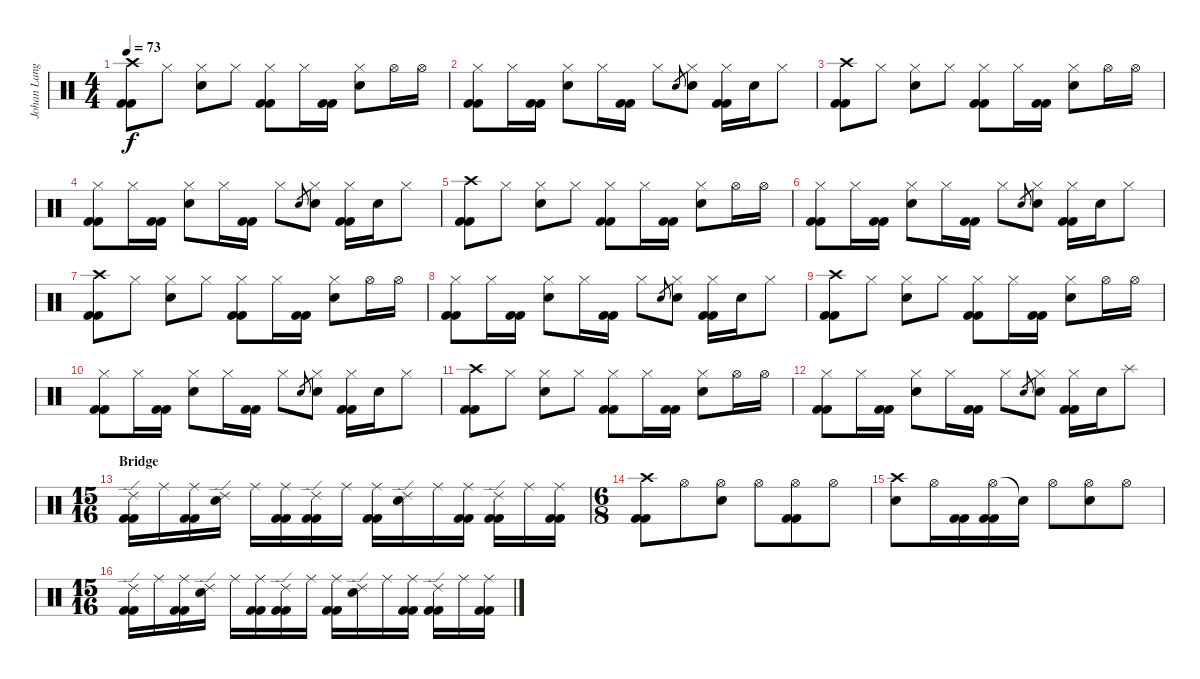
\track ("Johan Langell" "Johan Lang") {instrument percussion}
\staff {score}
\articulation defaults
\ts (4 4)
\tempo 73
\clef neutral
\ks c
("Crash high (hit)" "Kick (hit) 2" "Kick (hit) 2").8{dy f} "Hi-Hat (closed)".8 ("Hi-Hat (closed)" "Snare (hit) 2").8 "Hi-Hat (closed)".8 ("Hi-Hat (closed)" "Kick (hit) 2" "Kick (hit) 2").8 "Hi-Hat (closed)".16 ("Kick (hit) 2" "Kick (hit) 2").16 ("Hi-Hat (closed)" "Snare (hit) 2").8 "Hi-Hat (open)".16 "Hi-Hat (open)".16 |
("Hi-Hat (closed)" "Kick (hit) 2" "Kick (hit) 2").8 "Hi-Hat (closed)".16 ("Kick (hit) 2" "Kick (hit) 2").16 ("Hi-Hat (closed)" "Snare (hit) 2").8 "Hi-Hat (closed)".16 ("Kick (hit) 2" "Kick (hit) 2").16 "Hi-Hat (closed)".8 "Snare (hit) 2".8{gr} ("Hi-Hat (closed)" "Snare (hit) 2").8 ("Hi-Hat (closed)" "Kick (hit) 2" "Kick (hit) 2").16 "Snare (hit) 2".16 "Hi-Hat (closed)".8 |
("Crash high (hit)" "Kick (hit) 2" "Kick (hit) 2").8 "Hi-Hat (closed)".8 ("Hi-Hat (closed)" "Snare (hit) 2").8 "Hi-Hat (closed)".8 ("Hi-Hat (closed)" "Kick (hit) 2" "Kick (hit) 2").8 "Hi-Hat (closed)".16 ("Kick (hit) 2" "Kick (hit) 2").16 ("Hi-Hat (closed)" "Snare (hit) 2").8 "Hi-Hat (open)".16 "Hi-Hat (open)".16 |
("Hi-Hat (closed)" "Kick (hit) 2" "Kick (hit) 2").8 "Hi-Hat (closed)".16 ("Kick (hit) 2" "Kick (hit) 2").16 ("Hi-Hat (closed)" "Snare (hit) 2").8 "Hi-Hat (closed)".16 ("Kick (hit) 2" "Kick (hit) 2").16 "Hi-Hat (closed)".8 "Snare (hit) 2".8{gr} ("Hi-Hat (closed)" "Snare (hit) 2").8 ("Hi-Hat (closed)" "Kick (hit) 2" "Kick (hit) 2").16 "Snare (hit) 2".16 "Hi-Hat (closed)".8 |
("Crash high (hit)" "Kick (hit) 2" "Kick (hit) 2").8 "Hi-Hat (closed)".8 ("Hi-Hat (closed)" "Snare (hit) 2").8 "Hi-Hat (closed)".8 ("Hi-Hat (closed)" "Kick (hit) 2" "Kick (hit) 2").8 "Hi-Hat (closed)".16 ("Kick (hit) 2" "Kick (hit) 2").16 ("Hi-Hat (closed)" "Snare (hit) 2").8 "Hi-Hat (open)".16 "Hi-Hat (open)".16 |
("Hi-Hat (closed)" "Kick (hit) 2" "Kick (hit) 2").8 "Hi-Hat (closed)".16 ("Kick (hit) 2" "Kick (hit) 2").16 ("Hi-Hat (closed)" "Snare (hit) 2").8 "Hi-Hat (closed)".16 ("Kick (hit) 2" "Kick (hit) 2").16 "Hi-Hat (closed)".8 "Snare (hit) 2".8{gr} ("Hi-Hat (closed)" "Snare (hit) 2").8 ("Hi-Hat (closed)" "Kick (hit) 2" "Kick (hit) 2").16 "Snare (hit) 2".16 "Hi-Hat (closed)".8 |
("Crash high (hit)" "Kick (hit) 2" "Kick (hit) 2").8 "Hi-Hat (closed)".8 ("Hi-Hat (closed)" "Snare (hit) 2").8 "Hi-Hat (closed)".8 ("Hi-Hat (closed)" "Kick (hit) 2" "Kick (hit) 2").8 "Hi-Hat (closed)".16 ("Kick (hit) 2" "Kick (hit) 2").16 ("Hi-Hat (closed)" "Snare (hit) 2").8 "Hi-Hat (open)".16 "Hi-Hat (open)".16 |
("Hi-Hat (closed)" "Kick (hit) 2" "Kick (hit) 2").8 "Hi-Hat (closed)".16 ("Kick (hit) 2" "Kick (hit) 2").16 ("Hi-Hat (closed)" "Snare (hit) 2").8 "Hi-Hat (closed)".16 ("Kick (hit) 2" "Kick (hit) 2").16 "Hi-Hat (closed)".8 "Snare (hit) 2".8{gr} ("Hi-Hat (closed)" "Snare (hit) 2").8 ("Hi-Hat (closed)" "Kick (hit) 2" "Kick (hit) 2").16 "Snare (hit) 2".16 "Hi-Hat (closed)".8 |
("Crash high (hit)" "Kick (hit) 2" "Kick (hit) 2").8 "Hi-Hat (closed)".8 ("Hi-Hat (closed)" "Snare (hit) 2").8 "Hi-Hat (closed)".8 ("Hi-Hat (closed)" "Kick (hit) 2" "Kick (hit) 2").8 "Hi-Hat (closed)".16 ("Kick (hit) 2" "Kick (hit) 2").16 ("Hi-Hat (closed)" "Snare (hit) 2").8 "Hi-Hat (open)".16 "Hi-Hat (open)".16 |
("Hi-Hat (closed)" "Kick (hit) 2" "Kick (hit) 2").8 "Hi-Hat (closed)".16 ("Kick (hit) 2" "Kick (hit) 2").16 ("Hi-Hat (closed)" "Snare (hit) 2").8 "Hi-Hat (closed)".16 ("Kick (hit) 2" "Kick (hit) 2").16 "Hi-Hat (closed)".8 "Snare (hit) 2".8{gr} ("Hi-Hat (closed)" "Snare (hit) 2").8 ("Hi-Hat (closed)" "Kick (hit) 2" "Kick (hit) 2").16 "Snare (hit) 2".16 "Hi-Hat (closed)".8 |
("Crash high (hit)" "Kick (hit) 2" "Kick (hit) 2").8 "Hi-Hat (closed)".8 ("Hi-Hat (closed)" "Snare (hit) 2").8 "Hi-Hat (closed)".8 ("Hi-Hat (closed)" "Kick (hit) 2" "Kick (hit) 2").8 "Hi-Hat (closed)".16 ("Kick (hit) 2" "Kick (hit) 2").16 ("Hi-Hat (closed)" "Snare (hit) 2").8 "Hi-Hat (open)".16 "Hi-Hat (open)".16 |
("Hi-Hat (closed)" "Kick (hit) 2" "Kick (hit) 2").8 "Hi-Hat (closed)".16 ("Kick (hit) 2" "Kick (hit) 2").16 ("Hi-Hat (closed)" "Snare (hit) 2").8 "Hi-Hat (closed)".16 ("Kick (hit) 2" "Kick (hit) 2").16 "Hi-Hat (closed)".8 "Snare (hit) 2".8{gr} ("Hi-Hat (closed)" "Snare (hit) 2").8 ("Hi-Hat (closed)" "Kick (hit) 2" "Kick (hit) 2").16 "Snare (hit) 2".16 "Splash (hit)".8 |
\ts (15 16)
\section ("" "Bridge")
("Ride (edge) 2" "Kick (hit) 2" "Kick (hit) 2").16 "Ride (middle)".16 ("Ride (middle)" "Kick (hit) 2" "Kick (hit) 2").16 ("Ride (edge) 2" "Snare (hit) 2").16 "Ride (middle)".16 ("Ride (middle)" "Kick (hit) 2" "Kick (hit) 2").16 ("Ride (edge) 2" "Kick (hit) 2" "Kick (hit) 2").16 "Ride (middle)".16 ("Ride (middle)" "Kick (hit) 2" "Kick (hit) 2").16 ("Ride (edge) 2" "Snare (hit) 2").16 "Ride (middle)".16 ("Ride (middle)" "Kick (hit) 2" "Kick (hit) 2").16 ("Ride (edge) 2" "Kick (hit) 2" "Kick (hit) 2").16 "Ride (middle)".16 ("Ride (middle)" "Kick (hit) 2" "Kick (hit) 2").16 |
\ts (6 8)
("Crash high (hit)" "Kick (hit) 2" "Kick (hit) 2").8 "Hi-Hat (open)".8 ("Hi-Hat (open)" "Snare (hit) 2").8 "Hi-Hat (open)".8 ("Hi-Hat (open)" "Kick (hit) 2" "Kick (hit) 2").8 "Hi-Hat (open)".8 |
("Crash high (hit)" "Snare (hit) 2").8 "Hi-Hat (open)".16 ("Kick (hit) 2" "Kick (hit) 2").16 ("Hi-Hat (open)" "Kick (hit) 2" "Kick (hit) 2").16 "Snare (hit)"{t}.16 "Hi-Hat (open)".8 ("Hi-Hat (open)" "Snare (hit) 2").8 "Hi-Hat (open)".8 |
\ts (15 16)
("Ride (edge) 2" "Kick (hit) 2" "Kick (hit) 2").16 "Ride (middle)".16 ("Ride (middle)" "Kick (hit) 2" "Kick (hit) 2").16 ("Ride (edge) 2" "Snare (hit) 2").16 "Ride (middle)".16 ("Ride (middle)" "Kick (hit) 2" "Kick (hit) 2").16 ("Ride (edge) 2" "Kick (hit) 2" "Kick (hit) 2").16 "Ride (middle)".16 ("Ride (middle)" "Kick (hit) 2" "Kick (hit) 2").16 ("Ride (edge) 2" "Snare (hit) 2").16 "Ride (middle)".16 ("Ride (middle)" "Kick (hit) 2" "Kick (hit) 2").16 ("Ride (edge) 2" "Kick (hit) 2" "Kick (hit) 2").16 "Ride (middle)".16 ("Ride (middle)" "Kick (hit) 2" "Kick (hit) 2").16
